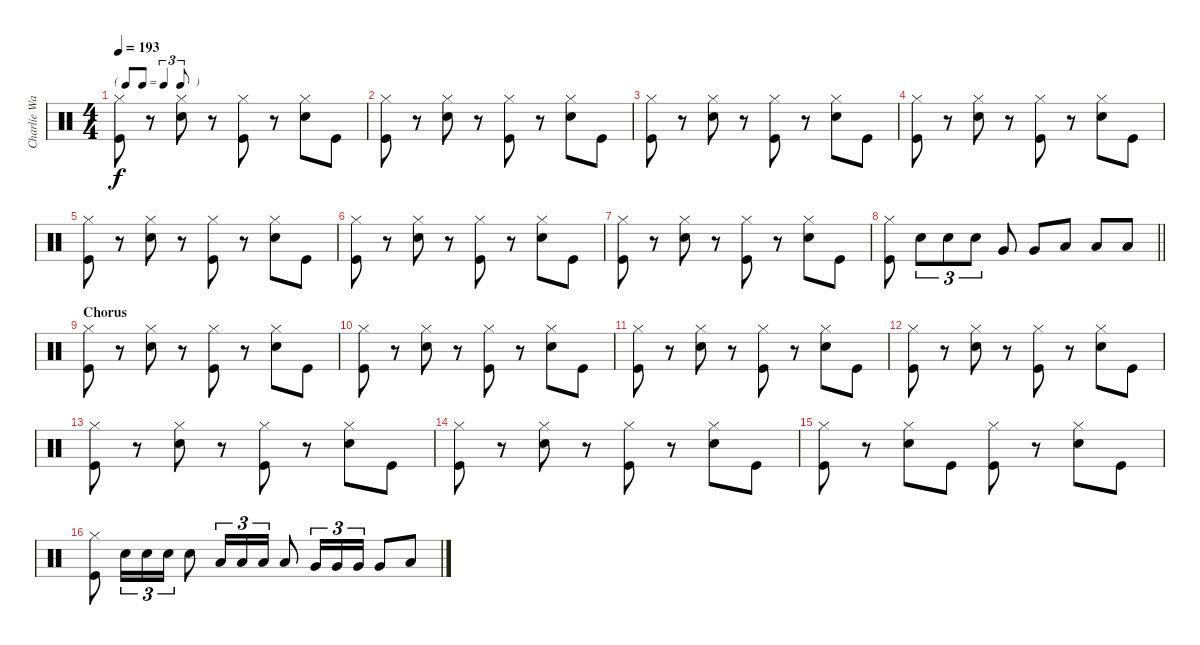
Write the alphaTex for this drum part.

\track ("Charlie Watts" "Charlie Wa") {instrument percussion}
\staff {score}
\articulation defaults
\ts (4 4)
\tf triplet8th
\tempo 193
\clef neutral
\ks c
("Hi-Hat (closed)" "Kick (hit)").8{dy f} r.8 ("Hi-Hat (closed)" "Snare (hit) 2").8 r.8 ("Hi-Hat (closed)" "Kick (hit)").8 r.8 ("Hi-Hat (closed)" "Snare (hit) 2").8 "Kick (hit)".8 |
("Hi-Hat (closed)" "Kick (hit)").8 r.8 ("Hi-Hat (closed)" "Snare (hit) 2").8 r.8 ("Hi-Hat (closed)" "Kick (hit)").8 r.8 ("Hi-Hat (closed)" "Snare (hit) 2").8 "Kick (hit)".8 |
("Hi-Hat (closed)" "Kick (hit)").8 r.8 ("Hi-Hat (closed)" "Snare (hit) 2").8 r.8 ("Hi-Hat (closed)" "Kick (hit)").8 r.8 ("Hi-Hat (closed)" "Snare (hit) 2").8 "Kick (hit)".8 |
("Hi-Hat (closed)" "Kick (hit)").8 r.8 ("Hi-Hat (closed)" "Snare (hit) 2").8 r.8 ("Hi-Hat (closed)" "Kick (hit)").8 r.8 ("Hi-Hat (closed)" "Snare (hit) 2").8 "Kick (hit)".8 |
("Hi-Hat (closed)" "Kick (hit)").8 r.8 ("Hi-Hat (closed)" "Snare (hit) 2").8 r.8 ("Hi-Hat (closed)" "Kick (hit)").8 r.8 ("Hi-Hat (closed)" "Snare (hit) 2").8 "Kick (hit)".8 |
("Hi-Hat (closed)" "Kick (hit)").8 r.8 ("Hi-Hat (closed)" "Snare (hit) 2").8 r.8 ("Hi-Hat (closed)" "Kick (hit)").8 r.8 ("Hi-Hat (closed)" "Snare (hit) 2").8 "Kick (hit)".8 |
("Hi-Hat (closed)" "Kick (hit)").8 r.8 ("Hi-Hat (closed)" "Snare (hit) 2").8 r.8 ("Hi-Hat (closed)" "Kick (hit)").8 r.8 ("Hi-Hat (closed)" "Snare (hit) 2").8 "Kick (hit)".8 |
\barLineRight lightlight
("Hi-Hat (closed)" "Kick (hit)").8 "Snare (hit) 2".8{tu (3 2)} "Snare (hit) 2".8{tu (3 2)} "Snare (hit) 2".8{tu (3 2)} "Very Low Tom (hit)".8 "Very Low Tom (hit)".8 "Low Floor Tom (hit)".8 "Low Floor Tom (hit)".8 "Low Floor Tom (hit)".8 |
\section ("" "Chorus")
("Hi-Hat (closed)" "Kick (hit)").8 r.8 ("Hi-Hat (closed)" "Snare (hit) 2").8 r.8 ("Hi-Hat (closed)" "Kick (hit)").8 r.8 ("Hi-Hat (closed)" "Snare (hit) 2").8 "Kick (hit)".8 |
("Hi-Hat (closed)" "Kick (hit)").8 r.8 ("Hi-Hat (closed)" "Snare (hit) 2").8 r.8 ("Hi-Hat (closed)" "Kick (hit)").8 r.8 ("Hi-Hat (closed)" "Snare (hit) 2").8 "Kick (hit)".8 |
("Hi-Hat (closed)" "Kick (hit)").8 r.8 ("Hi-Hat (closed)" "Snare (hit) 2").8 r.8 ("Hi-Hat (closed)" "Kick (hit)").8 r.8 ("Hi-Hat (closed)" "Snare (hit) 2").8 "Kick (hit)".8 |
("Hi-Hat (closed)" "Kick (hit)").8 r.8 ("Hi-Hat (closed)" "Snare (hit) 2").8 r.8 ("Hi-Hat (closed)" "Kick (hit)").8 r.8 ("Hi-Hat (closed)" "Snare (hit) 2").8 "Kick (hit)".8 |
("Hi-Hat (closed)" "Kick (hit)").8 r.8 ("Hi-Hat (closed)" "Snare (hit) 2").8 r.8 ("Hi-Hat (closed)" "Kick (hit)").8 r.8 ("Hi-Hat (closed)" "Snare (hit) 2").8 "Kick (hit)".8 |
("Hi-Hat (closed)" "Kick (hit)").8 r.8 ("Hi-Hat (closed)" "Snare (hit) 2").8 r.8 ("Hi-Hat (closed)" "Kick (hit)").8 r.8 ("Hi-Hat (closed)" "Snare (hit) 2").8 "Kick (hit)".8 |
("Hi-Hat (closed)" "Kick (hit)").8 r.8 ("Hi-Hat (closed)" "Snare (hit) 2").8 "Kick (hit)".8 ("Hi-Hat (closed)" "Kick (hit)").8 r.8 ("Hi-Hat (closed)" "Snare (hit) 2").8 "Kick (hit)".8 |
("Hi-Hat (closed)" "Kick (hit)").8 "Snare (hit) 2".16{tu (3 2)} "Snare (hit) 2".16{tu (3 2)} "Snare (hit) 2".16{tu (3 2)} "Snare (hit) 2".8 "Low Tom (hit)".16{tu (3 2)} "Low Tom (hit)".16{tu (3 2)} "Low Tom (hit)".16{tu (3 2)} "Low Tom (hit)".8 "Very Low Tom (hit)".16{tu (3 2)} "Very Low Tom (hit)".16{tu (3 2)} "Very Low Tom (hit)".16{tu (3 2)} "Very Low Tom (hit)".8 "Low Floor Tom (hit)".8
